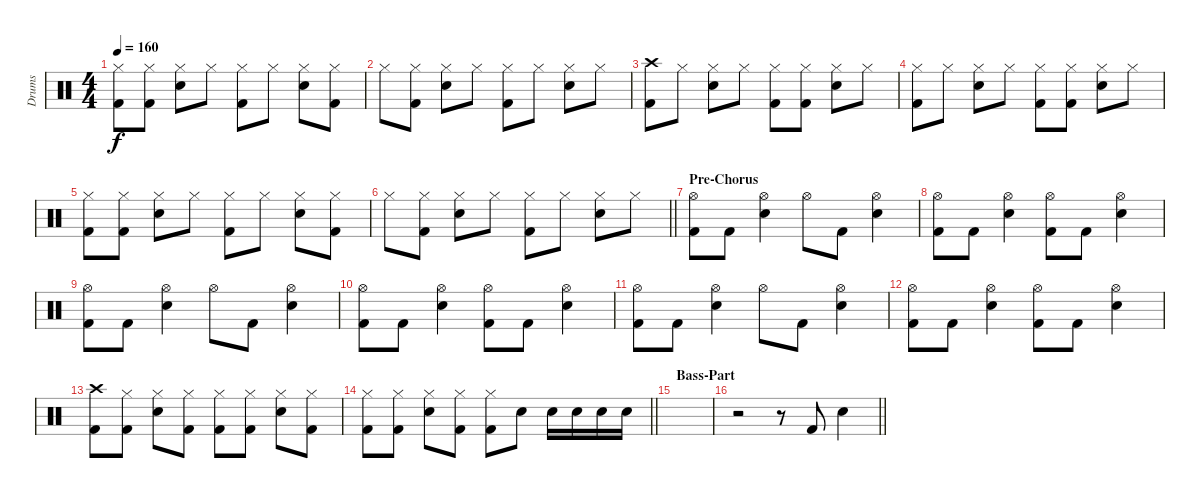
\track ("Drums" "Drums") {instrument percussion}
\staff {score}
\articulation defaults
\ts (4 4)
\tempo 160
\clef neutral
\ks c
("Hi-Hat (closed)" "Kick (hit) 2").8{dy f} ("Hi-Hat (closed)" "Kick (hit) 2").8 ("Hi-Hat (closed)" "Electric Snare (hit)").8 "Hi-Hat (closed)".8 ("Hi-Hat (closed)" "Kick (hit) 2").8 "Hi-Hat (closed)".8 ("Hi-Hat (closed)" "Electric Snare (hit)").8 ("Hi-Hat (closed)" "Kick (hit) 2").8 |
"Hi-Hat (closed)".8 ("Hi-Hat (closed)" "Kick (hit) 2").8 ("Hi-Hat (closed)" "Electric Snare (hit)").8 "Hi-Hat (closed)".8 ("Hi-Hat (closed)" "Kick (hit) 2").8 "Hi-Hat (closed)".8 ("Hi-Hat (closed)" "Electric Snare (hit)").8 "Hi-Hat (closed)".8 |
("Crash high (hit)" "Kick (hit) 2").8 "Hi-Hat (closed)".8 ("Hi-Hat (closed)" "Electric Snare (hit)").8 "Hi-Hat (closed)".8 ("Hi-Hat (closed)" "Kick (hit) 2").8 ("Hi-Hat (closed)" "Kick (hit) 2").8 ("Hi-Hat (closed)" "Electric Snare (hit)").8 "Hi-Hat (closed)".8 |
("Hi-Hat (closed)" "Kick (hit) 2").8 "Hi-Hat (closed)".8 ("Hi-Hat (closed)" "Electric Snare (hit)").8 "Hi-Hat (closed)".8 ("Hi-Hat (closed)" "Kick (hit) 2").8 ("Hi-Hat (closed)" "Kick (hit) 2").8 ("Hi-Hat (closed)" "Electric Snare (hit)").8 "Hi-Hat (closed)".8 |
("Hi-Hat (closed)" "Kick (hit) 2").8 ("Hi-Hat (closed)" "Kick (hit) 2").8 ("Hi-Hat (closed)" "Electric Snare (hit)").8 "Hi-Hat (closed)".8 ("Hi-Hat (closed)" "Kick (hit) 2").8 "Hi-Hat (closed)".8 ("Hi-Hat (closed)" "Electric Snare (hit)").8 ("Hi-Hat (closed)" "Kick (hit) 2").8 |
\barLineRight lightlight "Hi-Hat (closed)".8
("Hi-Hat (closed)" "Kick (hit) 2").8 ("Hi-Hat (closed)" "Electric Snare (hit)").8 "Hi-Hat (closed)".8 ("Hi-Hat (closed)" "Kick (hit) 2").8 "Hi-Hat (closed)".8 ("Hi-Hat (closed)" "Electric Snare (hit)").8 "Hi-Hat (closed)".8 |
\section ("" "Pre-Chorus")
("Hi-Hat (open)" "Kick (hit) 2").8 "Kick (hit) 2".8 ("Hi-Hat (open)" "Electric Snare (hit)").4 "Hi-Hat (open)".8 "Kick (hit) 2".8 ("Hi-Hat (open)" "Electric Snare (hit)").4 |
("Hi-Hat (open)" "Kick (hit) 2").8 "Kick (hit) 2".8 ("Hi-Hat (open)" "Electric Snare (hit)").4 ("Hi-Hat (open)" "Kick (hit) 2").8 "Kick (hit) 2".8 ("Hi-Hat (open)" "Electric Snare (hit)").4 |
("Hi-Hat (open)" "Kick (hit) 2").8 "Kick (hit) 2".8 ("Hi-Hat (open)" "Electric Snare (hit)").4 "Hi-Hat (open)".8 "Kick (hit) 2".8 ("Hi-Hat (open)" "Electric Snare (hit)").4 |
("Hi-Hat (open)" "Kick (hit) 2").8 "Kick (hit) 2".8 ("Hi-Hat (open)" "Electric Snare (hit)").4 ("Hi-Hat (open)" "Kick (hit) 2").8 "Kick (hit) 2".8 ("Hi-Hat (open)" "Electric Snare (hit)").4 |
("Hi-Hat (open)" "Kick (hit) 2").8 "Kick (hit) 2".8 ("Hi-Hat (open)" "Electric Snare (hit)").4 "Hi-Hat (open)".8 "Kick (hit) 2".8 ("Hi-Hat (open)" "Electric Snare (hit)").4 |
("Hi-Hat (open)" "Kick (hit) 2").8 "Kick (hit) 2".8 ("Hi-Hat (open)" "Electric Snare (hit)").4 ("Hi-Hat (open)" "Kick (hit) 2").8 "Kick (hit) 2".8 ("Hi-Hat (open)" "Electric Snare (hit)").4 |
("Crash high (hit)" "Kick (hit) 2").8 ("Hi-Hat (closed)" "Kick (hit) 2").8 ("Hi-Hat (closed)" "Electric Snare (hit)").8 ("Hi-Hat (closed)" "Kick (hit) 2").8 ("Hi-Hat (closed)" "Kick (hit) 2").8 ("Hi-Hat (closed)" "Kick (hit) 2").8 ("Hi-Hat (closed)" "Electric Snare (hit)").8 ("Hi-Hat (closed)" "Kick (hit) 2").8 |
\barLineRight lightlight
("Hi-Hat (closed)" "Kick (hit) 2").8 ("Hi-Hat (closed)" "Kick (hit) 2").8 ("Hi-Hat (closed)" "Electric Snare (hit)").8 ("Hi-Hat (closed)" "Kick (hit) 2").8 ("Hi-Hat (closed)" "Kick (hit) 2").8 "Electric Snare (hit)".8 "Electric Snare (hit)".16 "Electric Snare (hit)".16 "Electric Snare (hit)".16 "Electric Snare (hit)".16 |
\section ("" "Bass-Part")
|
\barLineRight lightlight
r.2 r.8 "Kick (hit) 2".8 "Electric Snare (hit)".4
